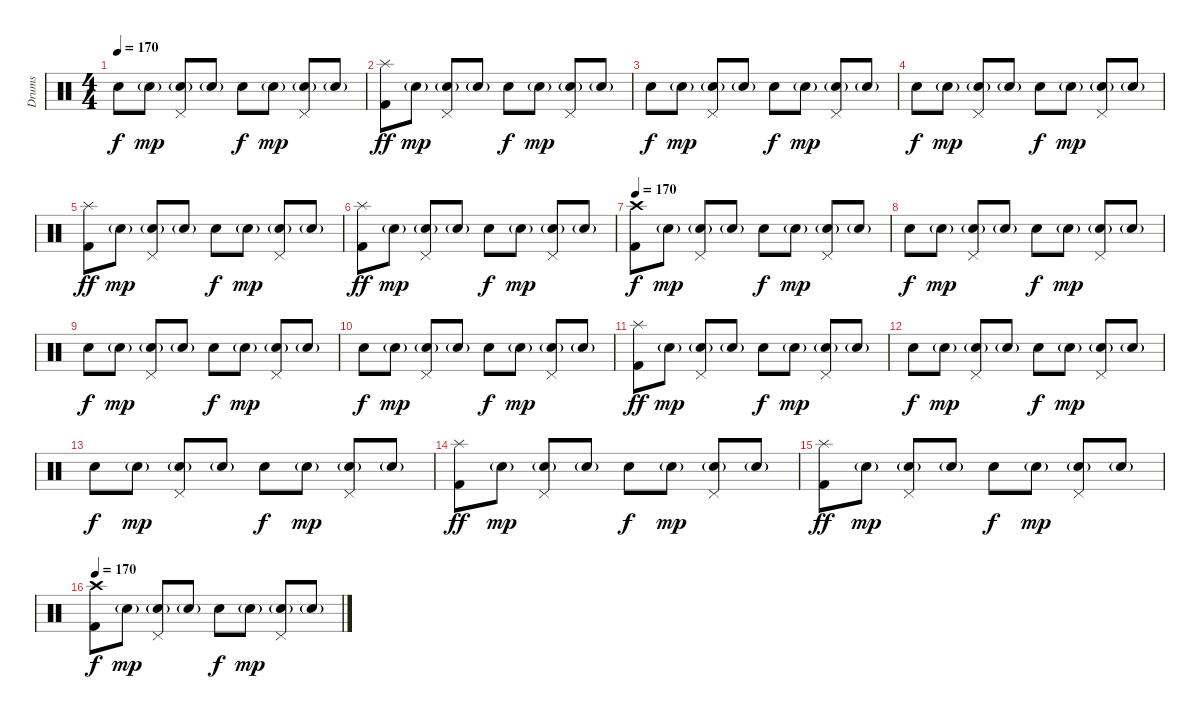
\track ("Drums" "Drums") {instrument percussion}
\staff {score}
\articulation defaults
\ts (4 4)
\tempo 170
\clef neutral
\ks c "Electric Snare (hit)".8{dy f} "Electric Snare (hit)"{g}.8{dy mp}
("Pedal Hi-Hat (hit)" "Electric Snare (hit)"{g}).8 "Electric Snare (hit)"{g}.8 "Electric Snare (hit)".8{dy f} "Electric Snare (hit)"{g}.8{dy mp} ("Pedal Hi-Hat (hit)" "Electric Snare (hit)"{g}).8 "Electric Snare (hit)"{g}.8 |
("Splash (hit)" "Kick (hit) 2").8{dy ff} "Electric Snare (hit)"{g}.8{dy mp} ("Pedal Hi-Hat (hit)" "Electric Snare (hit)"{g}).8 "Electric Snare (hit)"{g}.8 "Electric Snare (hit)".8{dy f} "Electric Snare (hit)"{g}.8{dy mp} ("Pedal Hi-Hat (hit)" "Electric Snare (hit)"{g}).8 "Electric Snare (hit)"{g}.8 |
"Electric Snare (hit)".8{dy f} "Electric Snare (hit)"{g}.8{dy mp} ("Pedal Hi-Hat (hit)" "Electric Snare (hit)"{g}).8 "Electric Snare (hit)"{g}.8 "Electric Snare (hit)".8{dy f} "Electric Snare (hit)"{g}.8{dy mp} ("Pedal Hi-Hat (hit)" "Electric Snare (hit)"{g}).8 "Electric Snare (hit)"{g}.8 |
"Electric Snare (hit)".8{dy f} "Electric Snare (hit)"{g}.8{dy mp} ("Pedal Hi-Hat (hit)" "Electric Snare (hit)"{g}).8 "Electric Snare (hit)"{g}.8 "Electric Snare (hit)".8{dy f} "Electric Snare (hit)"{g}.8{dy mp} ("Pedal Hi-Hat (hit)" "Electric Snare (hit)"{g}).8 "Electric Snare (hit)"{g}.8 |
("Splash (hit)" "Kick (hit) 2").8{dy ff} "Electric Snare (hit)"{g}.8{dy mp} ("Pedal Hi-Hat (hit)" "Electric Snare (hit)"{g}).8 "Electric Snare (hit)"{g}.8 "Electric Snare (hit)".8{dy f} "Electric Snare (hit)"{g}.8{dy mp} ("Pedal Hi-Hat (hit)" "Electric Snare (hit)"{g}).8 "Electric Snare (hit)"{g}.8 |
("Splash (hit)" "Kick (hit) 2").8{dy ff} "Electric Snare (hit)"{g}.8{dy mp} ("Pedal Hi-Hat (hit)" "Electric Snare (hit)"{g}).8 "Electric Snare (hit)"{g}.8 "Electric Snare (hit)".8{dy f} "Electric Snare (hit)"{g}.8{dy mp} ("Pedal Hi-Hat (hit)" "Electric Snare (hit)"{g}).8 "Electric Snare (hit)"{g}.8 |
\tempo 170
("Crash high (hit)" "Kick (hit) 2").8{dy f} "Electric Snare (hit)"{g}.8{dy mp} ("Pedal Hi-Hat (hit)" "Electric Snare (hit)"{g}).8 "Electric Snare (hit)"{g}.8 "Electric Snare (hit)".8{dy f} "Electric Snare (hit)"{g}.8{dy mp} ("Pedal Hi-Hat (hit)" "Electric Snare (hit)"{g}).8 "Electric Snare (hit)"{g}.8 |
"Electric Snare (hit)".8{dy f} "Electric Snare (hit)"{g}.8{dy mp} ("Pedal Hi-Hat (hit)" "Electric Snare (hit)"{g}).8 "Electric Snare (hit)"{g}.8 "Electric Snare (hit)".8{dy f} "Electric Snare (hit)"{g}.8{dy mp} ("Pedal Hi-Hat (hit)" "Electric Snare (hit)"{g}).8 "Electric Snare (hit)"{g}.8 |
"Electric Snare (hit)".8{dy f} "Electric Snare (hit)"{g}.8{dy mp} ("Pedal Hi-Hat (hit)" "Electric Snare (hit)"{g}).8 "Electric Snare (hit)"{g}.8 "Electric Snare (hit)".8{dy f} "Electric Snare (hit)"{g}.8{dy mp} ("Pedal Hi-Hat (hit)" "Electric Snare (hit)"{g}).8 "Electric Snare (hit)"{g}.8 |
"Electric Snare (hit)".8{dy f} "Electric Snare (hit)"{g}.8{dy mp} ("Pedal Hi-Hat (hit)" "Electric Snare (hit)"{g}).8 "Electric Snare (hit)"{g}.8 "Electric Snare (hit)".8{dy f} "Electric Snare (hit)"{g}.8{dy mp} ("Pedal Hi-Hat (hit)" "Electric Snare (hit)"{g}).8 "Electric Snare (hit)"{g}.8 |
("Splash (hit)" "Kick (hit) 2").8{dy ff} "Electric Snare (hit)"{g}.8{dy mp} ("Pedal Hi-Hat (hit)" "Electric Snare (hit)"{g}).8 "Electric Snare (hit)"{g}.8 "Electric Snare (hit)".8{dy f} "Electric Snare (hit)"{g}.8{dy mp} ("Pedal Hi-Hat (hit)" "Electric Snare (hit)"{g}).8 "Electric Snare (hit)"{g}.8 |
"Electric Snare (hit)".8{dy f} "Electric Snare (hit)"{g}.8{dy mp} ("Pedal Hi-Hat (hit)" "Electric Snare (hit)"{g}).8 "Electric Snare (hit)"{g}.8 "Electric Snare (hit)".8{dy f} "Electric Snare (hit)"{g}.8{dy mp} ("Pedal Hi-Hat (hit)" "Electric Snare (hit)"{g}).8 "Electric Snare (hit)"{g}.8 |
"Electric Snare (hit)".8{dy f} "Electric Snare (hit)"{g}.8{dy mp} ("Pedal Hi-Hat (hit)" "Electric Snare (hit)"{g}).8 "Electric Snare (hit)"{g}.8 "Electric Snare (hit)".8{dy f} "Electric Snare (hit)"{g}.8{dy mp} ("Pedal Hi-Hat (hit)" "Electric Snare (hit)"{g}).8 "Electric Snare (hit)"{g}.8 |
("Splash (hit)" "Kick (hit) 2").8{dy ff} "Electric Snare (hit)"{g}.8{dy mp} ("Pedal Hi-Hat (hit)" "Electric Snare (hit)"{g}).8 "Electric Snare (hit)"{g}.8 "Electric Snare (hit)".8{dy f} "Electric Snare (hit)"{g}.8{dy mp} ("Pedal Hi-Hat (hit)" "Electric Snare (hit)"{g}).8 "Electric Snare (hit)"{g}.8 |
("Splash (hit)" "Kick (hit) 2").8{dy ff} "Electric Snare (hit)"{g}.8{dy mp} ("Pedal Hi-Hat (hit)" "Electric Snare (hit)"{g}).8 "Electric Snare (hit)"{g}.8 "Electric Snare (hit)".8{dy f} "Electric Snare (hit)"{g}.8{dy mp} ("Pedal Hi-Hat (hit)" "Electric Snare (hit)"{g}).8 "Electric Snare (hit)"{g}.8 |
\tempo 170
("Crash high (hit)" "Kick (hit) 2").8{dy f} "Electric Snare (hit)"{g}.8{dy mp} ("Pedal Hi-Hat (hit)" "Electric Snare (hit)"{g}).8 "Electric Snare (hit)"{g}.8 "Electric Snare (hit)".8{dy f} "Electric Snare (hit)"{g}.8{dy mp} ("Pedal Hi-Hat (hit)" "Electric Snare (hit)"{g}).8 "Electric Snare (hit)"{g}.8
